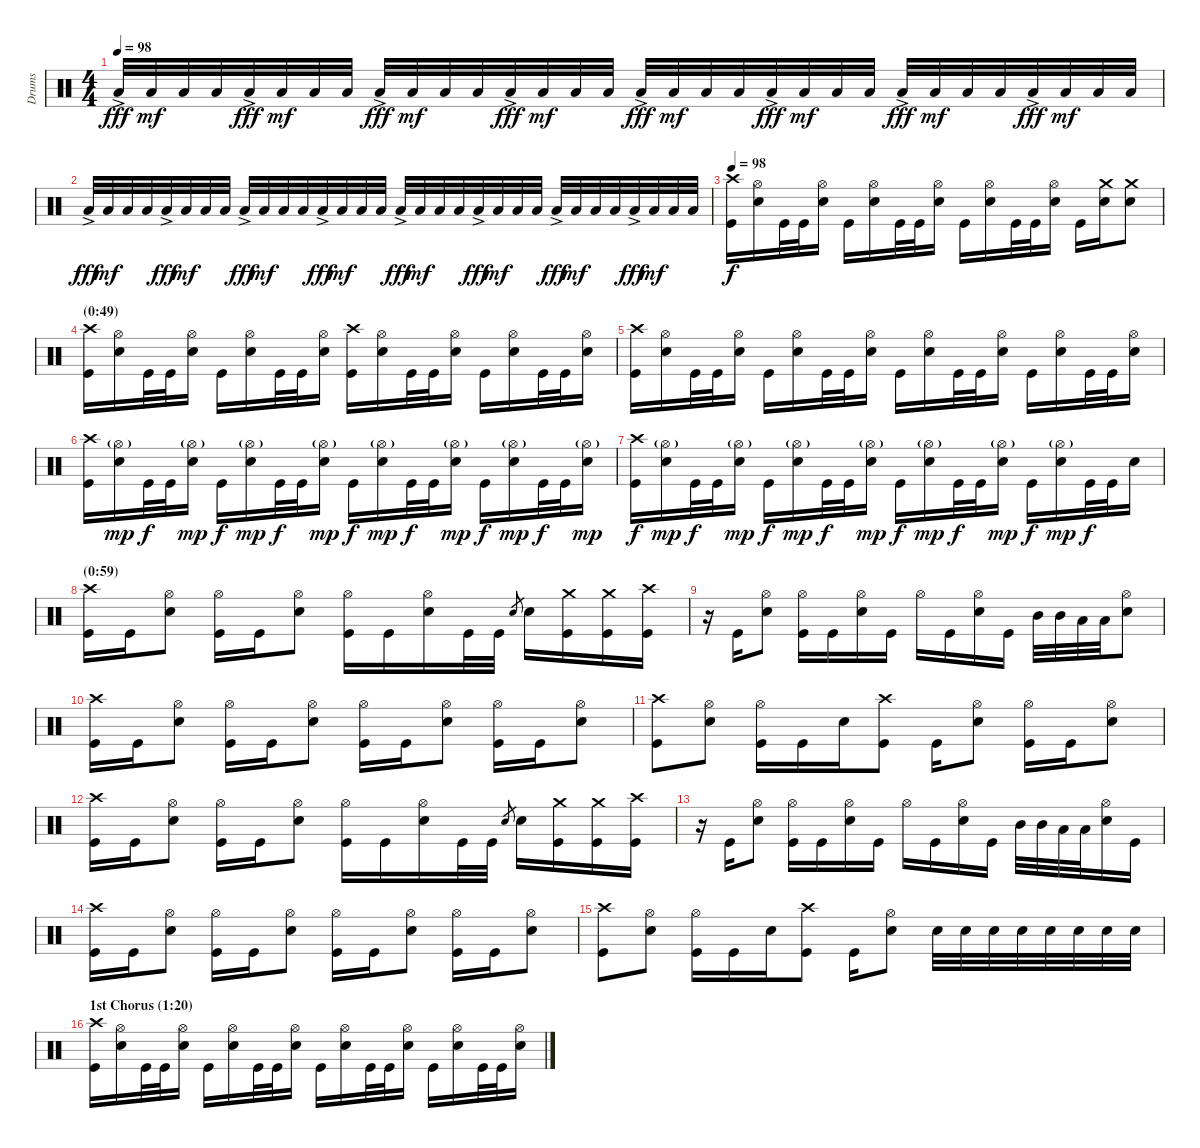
\track ("Drums" "Drums") {instrument percussion}
\staff {score}
\articulation defaults
\ts (4 4)
\tempo 98
\clef neutral
\ks c "Low Floor Tom (hit)"{ac}.32{dy fff} "Low Floor Tom (hit)".32{dy mf} "Low Floor Tom (hit)".32 "Low Floor Tom (hit)".32 "Low Floor Tom (hit)"{ac}.32{dy fff} "Low Floor Tom (hit)".32{dy mf} "Low Floor Tom (hit)".32 "Low Floor Tom (hit)".32 "Low Floor Tom (hit)"{ac}.32{dy fff} "Low Floor Tom (hit)".32{dy mf} "Low Floor Tom (hit)".32 "Low Floor Tom (hit)".32 "Low Floor Tom (hit)"{ac}.32{dy fff} "Low Floor Tom (hit)".32{dy mf} "Low Floor Tom (hit)".32 "Low Floor Tom (hit)".32 "Low Floor Tom (hit)"{ac}.32{dy fff} "Low Floor Tom (hit)".32{dy mf} "Low Floor Tom (hit)".32 "Low Floor Tom (hit)".32 "Low Floor Tom (hit)"{ac}.32{dy fff} "Low Floor Tom (hit)".32{dy mf} "Low Floor Tom (hit)".32 "Low Floor Tom (hit)".32 "Low Floor Tom (hit)"{ac}.32{dy fff} "Low Floor Tom (hit)".32{dy mf} "Low Floor Tom (hit)".32 "Low Floor Tom (hit)".32 "Low Floor Tom (hit)"{ac}.32{dy fff} "Low Floor Tom (hit)".32{dy mf} "Low Floor Tom (hit)".32 "Low Floor Tom (hit)".32
|
"Low Floor Tom (hit)"{ac}.32{dy fff} "Low Floor Tom (hit)".32{dy mf} "Low Floor Tom (hit)".32 "Low Floor Tom (hit)".32 "Low Floor Tom (hit)"{ac}.32{dy fff} "Low Floor Tom (hit)".32{dy mf} "Low Floor Tom (hit)".32 "Low Floor Tom (hit)".32 "Low Floor Tom (hit)"{ac}.32{dy fff} "Low Floor Tom (hit)".32{dy mf} "Low Floor Tom (hit)".32 "Low Floor Tom (hit)".32 "Low Floor Tom (hit)"{ac}.32{dy fff} "Low Floor Tom (hit)".32{dy mf} "Low Floor Tom (hit)".32 "Low Floor Tom (hit)".32 "Low Floor Tom (hit)"{ac}.32{dy fff} "Low Floor Tom (hit)".32{dy mf} "Low Floor Tom (hit)".32 "Low Floor Tom (hit)".32 "Low Floor Tom (hit)"{ac}.32{dy fff} "Low Floor Tom (hit)".32{dy mf} "Low Floor Tom (hit)".32 "Low Floor Tom (hit)".32 "Low Floor Tom (hit)"{ac}.32{dy fff} "Low Floor Tom (hit)".32{dy mf} "Low Floor Tom (hit)".32 "Low Floor Tom (hit)".32 "Low Floor Tom (hit)"{ac}.32{dy fff} "Low Floor Tom (hit)".32{dy mf} "Low Floor Tom (hit)".32 "Low Floor Tom (hit)".32 |
\tempo 98
("Crash high (hit)" "Kick (hit)").16{dy f} ("Hi-Hat (open)" "Snare (hit) 2").16 "Kick (hit)".32 "Kick (hit)".32 ("Hi-Hat (open)" "Snare (hit) 2").16 "Kick (hit)".16 ("Hi-Hat (open)" "Snare (hit) 2").16 "Kick (hit)".32 "Kick (hit)".32 ("Hi-Hat (open)" "Snare (hit) 2").16 "Kick (hit)".16 ("Hi-Hat (open)" "Snare (hit) 2").16 "Kick (hit)".32 "Kick (hit)".32 ("Hi-Hat (open)" "Snare (hit) 2").16 "Kick (hit)".16 ("Crash medium (hit)" "Snare (hit) 2").16 ("Crash medium (hit)" "Snare (hit) 2").8 |
\section ("" "(0:49)")
("Crash high (hit)" "Kick (hit)").16 ("Hi-Hat (open)" "Snare (hit) 2").16 "Kick (hit)".32 "Kick (hit)".32 ("Hi-Hat (open)" "Snare (hit) 2").16 "Kick (hit)".16 ("Hi-Hat (open)" "Snare (hit) 2").16 "Kick (hit)".32 "Kick (hit)".32 ("Hi-Hat (open)" "Snare (hit) 2").16 ("Crash high (hit)" "Kick (hit)").16 ("Hi-Hat (open)" "Snare (hit) 2").16 "Kick (hit)".32 "Kick (hit)".32 ("Hi-Hat (open)" "Snare (hit) 2").16 "Kick (hit)".16 ("Hi-Hat (open)" "Snare (hit) 2").16 "Kick (hit)".32 "Kick (hit)".32 ("Hi-Hat (open)" "Snare (hit) 2").16 |
("Crash high (hit)" "Kick (hit)").16 ("Hi-Hat (open)" "Snare (hit) 2").16 "Kick (hit)".32 "Kick (hit)".32 ("Hi-Hat (open)" "Snare (hit) 2").16 "Kick (hit)".16 ("Hi-Hat (open)" "Snare (hit) 2").16 "Kick (hit)".32 "Kick (hit)".32 ("Hi-Hat (open)" "Snare (hit) 2").16 "Kick (hit)".16 ("Hi-Hat (open)" "Snare (hit) 2").16 "Kick (hit)".32 "Kick (hit)".32 ("Hi-Hat (open)" "Snare (hit) 2").16 "Kick (hit)".16 ("Hi-Hat (open)" "Snare (hit) 2").16 "Kick (hit)".32 "Kick (hit)".32 ("Hi-Hat (open)" "Snare (hit) 2").16 |
("Crash high (hit)" "Kick (hit)").16 ("Hi-Hat (open)"{g} "Snare (hit) 2").16{dy mp} "Kick (hit)".32{dy f} "Kick (hit)".32 ("Hi-Hat (open)"{g} "Snare (hit) 2").16{dy mp} "Kick (hit)".16{dy f} ("Hi-Hat (open)"{g} "Snare (hit) 2").16{dy mp} "Kick (hit)".32{dy f} "Kick (hit)".32 ("Hi-Hat (open)"{g} "Snare (hit) 2").16{dy mp} "Kick (hit)".16{dy f} ("Hi-Hat (open)"{g} "Snare (hit) 2").16{dy mp} "Kick (hit)".32{dy f} "Kick (hit)".32 ("Hi-Hat (open)"{g} "Snare (hit) 2").16{dy mp} "Kick (hit)".16{dy f} ("Hi-Hat (open)"{g} "Snare (hit) 2").16{dy mp} "Kick (hit)".32{dy f} "Kick (hit)".32 ("Hi-Hat (open)"{g} "Snare (hit) 2").16{dy mp} |
("Crash high (hit)" "Kick (hit)").16{dy f} ("Hi-Hat (open)"{g} "Snare (hit) 2").16{dy mp} "Kick (hit)".32{dy f} "Kick (hit)".32 ("Hi-Hat (open)"{g} "Snare (hit) 2").16{dy mp} "Kick (hit)".16{dy f} ("Hi-Hat (open)"{g} "Snare (hit) 2").16{dy mp} "Kick (hit)".32{dy f} "Kick (hit)".32 ("Hi-Hat (open)"{g} "Snare (hit) 2").16{dy mp} "Kick (hit)".16{dy f} ("Hi-Hat (open)"{g} "Snare (hit) 2").16{dy mp} "Kick (hit)".32{dy f} "Kick (hit)".32 ("Hi-Hat (open)"{g} "Snare (hit) 2").16{dy mp} "Kick (hit)".16{dy f} ("Hi-Hat (open)"{g} "Snare (hit) 2").16{dy mp} "Kick (hit)".32{dy f} "Kick (hit)".32 "Snare (hit) 2".16 |
\section ("" "(0:59)")
("Crash high (hit)" "Kick (hit)").16 "Kick (hit)".16 ("Hi-Hat (open)" "Snare (hit) 2").8 ("Hi-Hat (open)" "Kick (hit)").16 "Kick (hit)".16 ("Hi-Hat (open)" "Snare (hit) 2").8 ("Hi-Hat (open)" "Kick (hit)").16 "Kick (hit)".16 ("Hi-Hat (open)" "Snare (hit) 2").16 "Kick (hit)".32 "Kick (hit)".32 "Snare (hit) 2".8{gr} "Snare (hit) 2".16 ("Crash medium (hit)" "Kick (hit)").16 ("Crash medium (hit)" "Kick (hit)").16 ("Crash high (hit)" "Kick (hit)").16 |
r.16 "Kick (hit)".16 ("Hi-Hat (open)" "Snare (hit) 2").8 ("Hi-Hat (open)" "Kick (hit)").16 "Kick (hit)".16 ("Hi-Hat (open)" "Snare (hit) 2").16 "Kick (hit)".16 "Hi-Hat (open)".16 "Kick (hit)".16 ("Hi-Hat (open)" "Snare (hit) 2").16 "Kick (hit)".16 "Mid Tom (hit)".32 "Mid Tom (hit)".32 "Low Tom (hit)".32 "Low Tom (hit)".32 ("Hi-Hat (open)" "Snare (hit) 2").8 |
("Crash high (hit)" "Kick (hit)").16 "Kick (hit)".16 ("Hi-Hat (open)" "Snare (hit) 2").8 ("Hi-Hat (open)" "Kick (hit)").16 "Kick (hit)".16 ("Hi-Hat (open)" "Snare (hit) 2").8 ("Hi-Hat (open)" "Kick (hit)").16 "Kick (hit)".16 ("Hi-Hat (open)" "Snare (hit) 2").8 ("Hi-Hat (open)" "Kick (hit)").16 "Kick (hit)".16 ("Hi-Hat (open)" "Snare (hit) 2").8 |
("Crash high (hit)" "Kick (hit)").8 ("Hi-Hat (open)" "Snare (hit) 2").8 ("Hi-Hat (open)" "Kick (hit)").16 "Kick (hit)".16 "Snare (hit) 2".16 ("Crash high (hit)" "Kick (hit)").8 "Kick (hit)".16 ("Hi-Hat (open)" "Snare (hit) 2").8 ("Hi-Hat (open)" "Kick (hit)").16 "Kick (hit)".16 ("Hi-Hat (open)" "Snare (hit) 2").8 |
("Crash high (hit)" "Kick (hit)").16 "Kick (hit)".16 ("Hi-Hat (open)" "Snare (hit) 2").8 ("Hi-Hat (open)" "Kick (hit)").16 "Kick (hit)".16 ("Hi-Hat (open)" "Snare (hit) 2").8 ("Hi-Hat (open)" "Kick (hit)").16 "Kick (hit)".16 ("Hi-Hat (open)" "Snare (hit) 2").16 "Kick (hit)".32 "Kick (hit)".32 "Snare (hit) 2".8{gr} "Snare (hit) 2".16 ("Crash medium (hit)" "Kick (hit)").16 ("Crash medium (hit)" "Kick (hit)").16 ("Crash high (hit)" "Kick (hit)").16 |
r.16 "Kick (hit)".16 ("Hi-Hat (open)" "Snare (hit) 2").8 ("Hi-Hat (open)" "Kick (hit)").16 "Kick (hit)".16 ("Hi-Hat (open)" "Snare (hit) 2").16 "Kick (hit)".16 "Hi-Hat (open)".16 "Kick (hit)".16 ("Hi-Hat (open)" "Snare (hit) 2").16 "Kick (hit)".16 "Mid Tom (hit)".32 "Mid Tom (hit)".32 "Low Tom (hit)".32 "Low Tom (hit)".32 ("Hi-Hat (open)" "Snare (hit) 2").16 "Kick (hit)".16 |
("Crash high (hit)" "Kick (hit)").16 "Kick (hit)".16 ("Hi-Hat (open)" "Snare (hit) 2").8 ("Hi-Hat (open)" "Kick (hit)").16 "Kick (hit)".16 ("Hi-Hat (open)" "Snare (hit) 2").8 ("Hi-Hat (open)" "Kick (hit)").16 "Kick (hit)".16 ("Hi-Hat (open)" "Snare (hit) 2").8 ("Hi-Hat (open)" "Kick (hit)").16 "Kick (hit)".16 ("Hi-Hat (open)" "Snare (hit) 2").8 |
("Crash high (hit)" "Kick (hit)").8 ("Hi-Hat (open)" "Snare (hit) 2").8 ("Hi-Hat (open)" "Kick (hit)").16 "Kick (hit)".16 "Snare (hit) 2".16 ("Crash high (hit)" "Kick (hit)").8 "Kick (hit)".16 ("Hi-Hat (open)" "Snare (hit) 2").8 "Snare (hit) 2".32 "Snare (hit) 2".32 "Snare (hit) 2".32 "Snare (hit) 2".32 "Snare (hit) 2".32 "Snare (hit) 2".32 "Snare (hit) 2".32 "Snare (hit) 2".32 |
\section ("" "1st Chorus (1:20)")
("Crash high (hit)" "Kick (hit)").16 ("Hi-Hat (open)" "Snare (hit) 2").16 "Kick (hit)".32 "Kick (hit)".32 ("Hi-Hat (open)" "Snare (hit) 2").16 "Kick (hit)".16 ("Hi-Hat (open)" "Snare (hit) 2").16 "Kick (hit)".32 "Kick (hit)".32 ("Hi-Hat (open)" "Snare (hit) 2").16 "Kick (hit)".16 ("Hi-Hat (open)" "Snare (hit) 2").16 "Kick (hit)".32 "Kick (hit)".32 ("Hi-Hat (open)" "Snare (hit) 2").16 "Kick (hit)".16 ("Hi-Hat (open)" "Snare (hit) 2").16 "Kick (hit)".32 "Kick (hit)".32 ("Hi-Hat (open)" "Snare (hit) 2").16
